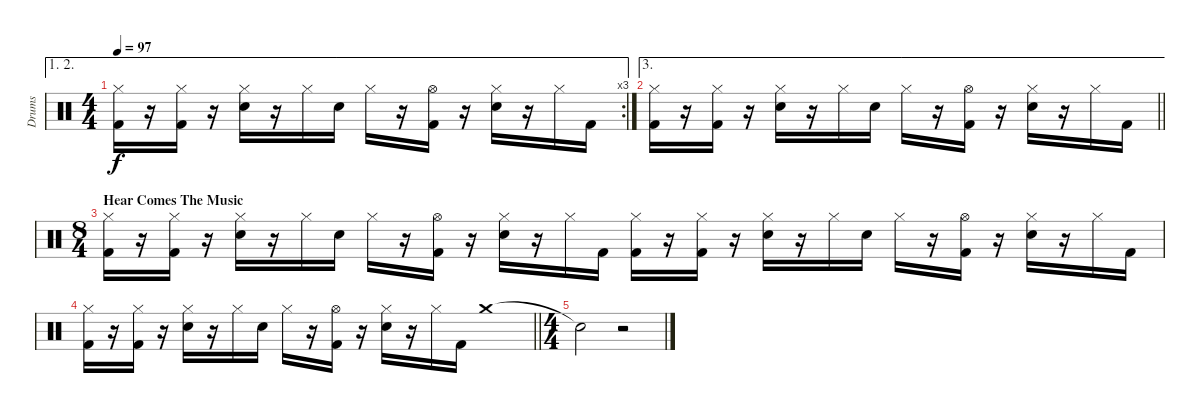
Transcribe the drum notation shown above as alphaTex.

\track ("Drums" "Drums") {instrument percussion}
\staff {score}
\articulation defaults
\ae (1 2)
\rc 3
\ts (4 4)
\tempo 97
\clef neutral
\ks c
("Kick (hit) 2" "Hi-Hat (closed)").16{dy f} r.16 ("Kick (hit) 2" "Hi-Hat (closed)").16 r.16 ("Electric Snare (hit)" "Hi-Hat (closed)").16 r.16 "Hi-Hat (closed)".16 "Electric Snare (hit)".16 "Hi-Hat (closed)".16 r.16 ("Kick (hit) 2" "Hi-Hat (open)").16 r.16 ("Electric Snare (hit)" "Hi-Hat (closed)").16 r.16 "Hi-Hat (closed)".16 "Kick (hit) 2".16 |
\ae 3
\barLineRight lightlight
("Kick (hit) 2" "Hi-Hat (closed)").16 r.16 ("Kick (hit) 2" "Hi-Hat (closed)").16 r.16 ("Electric Snare (hit)" "Hi-Hat (closed)").16 r.16 "Hi-Hat (closed)".16 "Electric Snare (hit)".16 "Hi-Hat (closed)".16 r.16 ("Kick (hit) 2" "Hi-Hat (open)").16 r.16 ("Electric Snare (hit)" "Hi-Hat (closed)").16 r.16 "Hi-Hat (closed)".16 "Kick (hit) 2".16 |
\ts (8 4)
\section ("" "Hear Comes The Music")
("Kick (hit) 2" "Hi-Hat (closed)").16 r.16 ("Kick (hit) 2" "Hi-Hat (closed)").16 r.16 ("Electric Snare (hit)" "Hi-Hat (closed)").16 r.16 "Hi-Hat (closed)".16 "Electric Snare (hit)".16 "Hi-Hat (closed)".16 r.16 ("Kick (hit) 2" "Hi-Hat (open)").16 r.16 ("Electric Snare (hit)" "Hi-Hat (closed)").16 r.16 "Hi-Hat (closed)".16 "Kick (hit) 2".16 ("Kick (hit) 2" "Hi-Hat (closed)").16 r.16 ("Kick (hit) 2" "Hi-Hat (closed)").16 r.16 ("Electric Snare (hit)" "Hi-Hat (closed)").16 r.16 "Hi-Hat (closed)".16 "Electric Snare (hit)".16 "Hi-Hat (closed)".16 r.16 ("Kick (hit) 2" "Hi-Hat (open)").16 r.16 ("Electric Snare (hit)" "Hi-Hat (closed)").16 r.16 "Hi-Hat (closed)".16 "Kick (hit) 2".16 |
\barLineRight lightlight
("Kick (hit) 2" "Hi-Hat (closed)").16 r.16 ("Kick (hit) 2" "Hi-Hat (closed)").16 r.16 ("Electric Snare (hit)" "Hi-Hat (closed)").16 r.16 "Hi-Hat (closed)".16 "Electric Snare (hit)".16 "Hi-Hat (closed)".16 r.16 ("Kick (hit) 2" "Hi-Hat (open)").16 r.16 ("Electric Snare (hit)" "Hi-Hat (closed)").16 r.16 "Hi-Hat (closed)".16 "Kick (hit) 2".16 "Crash medium (hit)".1 |
\ts (4 4)
"Snare (hit)"{t}.2 r.2
